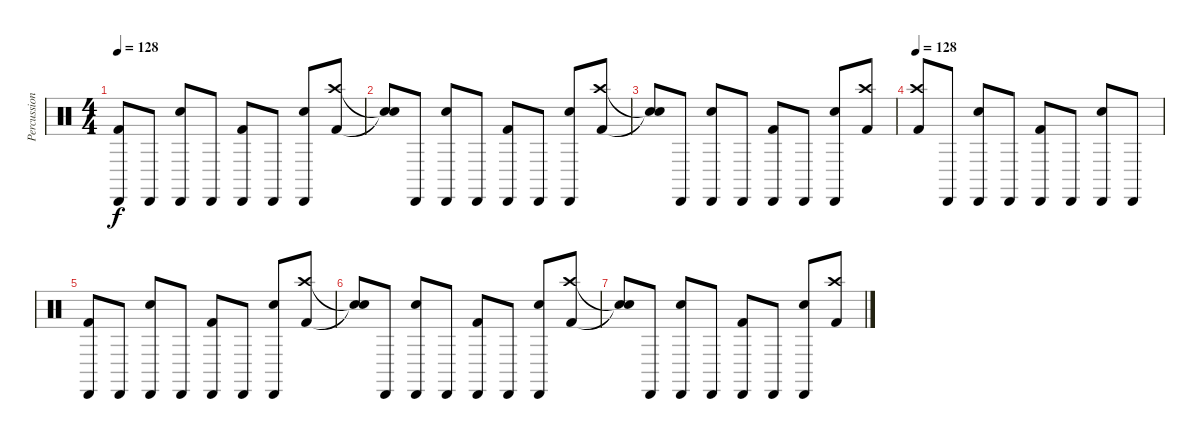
\track ("Percussion" "Percussion") {instrument percussion}
\staff {score}
\articulation defaults
\ts (4 4)
\tempo 128
\clef neutral
\ks c
("Kick (hit) 2" "Cabasa (hit)").8{dy f} "Cabasa (hit)".8 ("Snare (hit) 2" "Cabasa (hit)").8 "Cabasa (hit)".8 ("Kick (hit) 2" "Cabasa (hit)").8 "Cabasa (hit)".8 ("Snare (hit) 2" "Cabasa (hit)").8 ("Kick (hit) 2" "Crash high (hit)").8 |
("Snare (hit)"{t} "Snare (hit)"{t}).8 "Cabasa (hit)".8 ("Snare (hit) 2" "Cabasa (hit)").8 "Cabasa (hit)".8 ("Kick (hit) 2" "Cabasa (hit)").8 "Cabasa (hit)".8 ("Snare (hit) 2" "Cabasa (hit)").8 ("Kick (hit) 2" "Crash high (hit)").8 |
("Snare (hit)"{t} "Snare (hit)"{t}).8 "Cabasa (hit)".8 ("Snare (hit) 2" "Cabasa (hit)").8 "Cabasa (hit)".8 ("Kick (hit) 2" "Cabasa (hit)").8 "Cabasa (hit)".8 ("Snare (hit) 2" "Cabasa (hit)").8 ("Kick (hit) 2" "Crash high (hit)").8 |
\tempo 128
("Kick (hit) 2" "Crash high (hit)").8 "Cabasa (hit)".8 ("Snare (hit) 2" "Cabasa (hit)").8 "Cabasa (hit)".8 ("Kick (hit) 2" "Cabasa (hit)").8 "Cabasa (hit)".8 ("Snare (hit) 2" "Cabasa (hit)").8 "Cabasa (hit)".8 |
("Kick (hit) 2" "Cabasa (hit)").8 "Cabasa (hit)".8 ("Snare (hit) 2" "Cabasa (hit)").8 "Cabasa (hit)".8 ("Kick (hit) 2" "Cabasa (hit)").8 "Cabasa (hit)".8 ("Snare (hit) 2" "Cabasa (hit)").8 ("Kick (hit) 2" "Crash high (hit)").8 |
("Snare (hit)"{t} "Snare (hit)"{t}).8 "Cabasa (hit)".8 ("Snare (hit) 2" "Cabasa (hit)").8 "Cabasa (hit)".8 ("Kick (hit) 2" "Cabasa (hit)").8 "Cabasa (hit)".8 ("Snare (hit) 2" "Cabasa (hit)").8 ("Kick (hit) 2" "Crash high (hit)").8 |
("Snare (hit)"{t} "Snare (hit)"{t}).8 "Cabasa (hit)".8 ("Snare (hit) 2" "Cabasa (hit)").8 "Cabasa (hit)".8 ("Kick (hit) 2" "Cabasa (hit)").8 "Cabasa (hit)".8 ("Snare (hit) 2" "Cabasa (hit)").8 ("Kick (hit) 2" "Crash high (hit)").8
